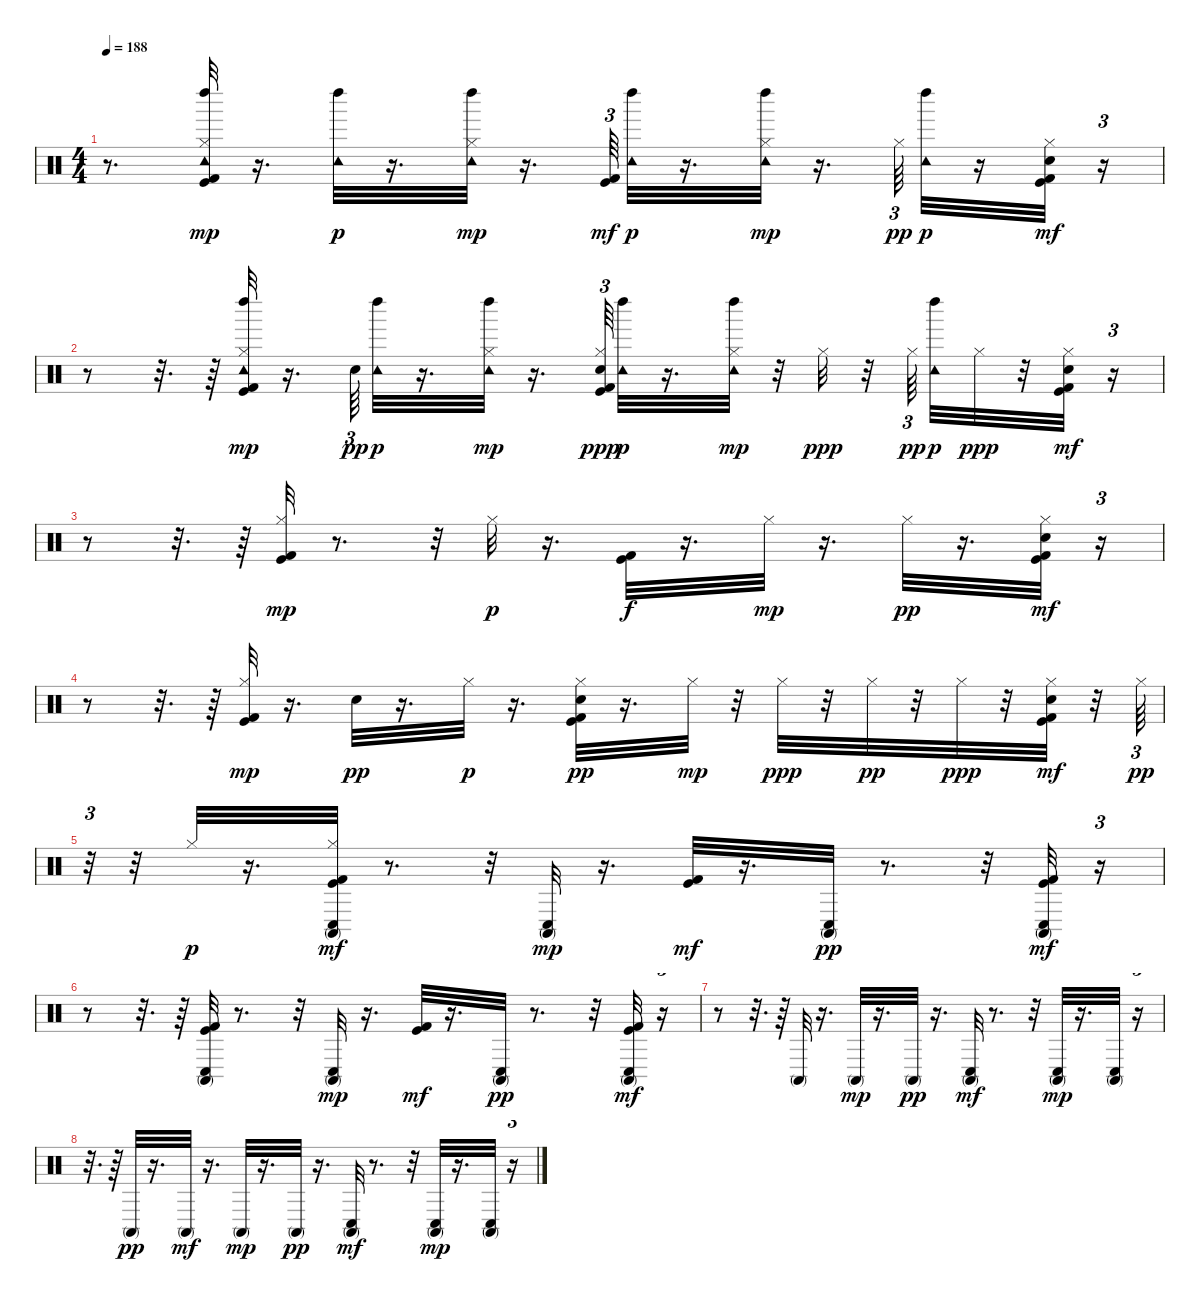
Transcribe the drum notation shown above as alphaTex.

\track "" {instrument percussion}
\staff {score}
\articulation defaults
\ts (4 4)
\tempo 188
\clef neutral
\ks c
r.8{d dy mf} ("Kick (hit) 2" "Hi-Hat (closed)" "Tambourine (hit)" "Left Maraca (hit)" "Kick (hit)").32{dy mp} r.16{d} ("Tambourine (hit)" "Left Maraca (hit)").32{dy p} r.16{d} ("Hi-Hat (closed)" "Tambourine (hit)" "Left Maraca (hit)").32{dy mp} r.16{d} ("Kick (hit) 2" "Kick (hit)").64{tu (3 2) dy mf} ("Tambourine (hit)" "Left Maraca (hit)").32{dy p} r.16{d} ("Hi-Hat (closed)" "Tambourine (hit)" "Left Maraca (hit)").32{dy mp} r.16{d} "Hi-Hat (closed)".64{tu (3 2) dy pp} ("Tambourine (hit)" "Left Maraca (hit)").32{dy p} r.16 ("Kick (hit) 2" "Hi-Hat (closed)" "Electric Snare (hit)" "Kick (hit)").32{dy mf} r.16{tu (3 2)} |
r.8 r.32{d} r.64 ("Kick (hit) 2" "Hi-Hat (closed)" "Tambourine (hit)" "Left Maraca (hit)" "Kick (hit)").32{dy mp} r.16{d} "Electric Snare (hit)".64{tu (3 2) dy pp} ("Tambourine (hit)" "Left Maraca (hit)").32{dy p} r.16{d} ("Hi-Hat (closed)" "Tambourine (hit)" "Left Maraca (hit)").32{dy mp} r.16{d} ("Kick (hit) 2" "Electric Snare (hit)" "Hi-Hat (closed)" "Kick (hit)").64{tu (3 2) dy ppp} ("Tambourine (hit)" "Left Maraca (hit)").32{dy p} r.16{d} ("Hi-Hat (closed)" "Tambourine (hit)" "Left Maraca (hit)").32{dy mp} r.32 "Hi-Hat (closed)".32{dy ppp} r.32 "Hi-Hat (closed)".64{tu (3 2) dy pp beam splitsecondary} ("Tambourine (hit)" "Left Maraca (hit)").32{dy p} "Hi-Hat (closed)".32{dy ppp} r.32 ("Kick (hit) 2" "Hi-Hat (closed)" "Electric Snare (hit)" "Kick (hit)").32{dy mf} r.16{tu (3 2)} |
r.8 r.32{d} r.64 ("Kick (hit) 2" "Hi-Hat (closed)" "Kick (hit)").32{dy mp} r.8{d} r.32 "Hi-Hat (closed)".32{dy p} r.16{d} ("Kick (hit) 2" "Kick (hit)").32{dy f} r.16{d} "Hi-Hat (closed)".32{dy mp} r.16{d} "Hi-Hat (closed)".32{dy pp} r.16{d} ("Kick (hit) 2" "Hi-Hat (closed)" "Electric Snare (hit)" "Kick (hit)").32{dy mf} r.16{tu (3 2)} |
r.8 r.32{d} r.64 ("Kick (hit) 2" "Hi-Hat (closed)" "Kick (hit)").32{dy mp} r.16{d} "Electric Snare (hit)".32{dy pp} r.16{d} "Hi-Hat (closed)".32{dy p} r.16{d} ("Kick (hit) 2" "Electric Snare (hit)" "Hi-Hat (closed)" "Kick (hit)").32{dy pp} r.16{d} "Hi-Hat (closed)".32{dy mp} r.32 "Hi-Hat (closed)".32{dy ppp} r.32 "Hi-Hat (closed)".32{dy pp} r.32 "Hi-Hat (closed)".32{dy ppp} r.32 ("Kick (hit) 2" "Electric Snare (hit)" "Hi-Hat (closed)" "Kick (hit)").32{dy mf} r.32 "Hi-Hat (closed)".64{tu (3 2) dy pp} |
r.32{tu (3 2)} r.32 "Hi-Hat (closed)".32{dy p} r.16{d} ("Kick (hit) 2" "Hi-Hat (closed)" "Conga high (mute)" "Conga low (hit)" "Kick (hit)").32{dy mf} r.8{d} r.32 ("Conga high (mute)" "Conga low (hit)").32{dy mp} r.16{d} ("Kick (hit) 2" "Kick (hit)").32{dy mf} r.16{d} ("Conga high (mute)" "Conga low (hit)").32{dy pp} r.8{d} r.32 ("Kick (hit) 2" "Conga high (mute)" "Conga low (hit)" "Kick (hit)").32{dy mf} r.16{tu (3 2)} |
r.8 r.32{d} r.64 ("Kick (hit) 2" "Conga high (mute)" "Conga low (hit)" "Kick (hit)").32 r.8{d} r.32 ("Conga high (mute)" "Conga low (hit)").32{dy mp} r.16{d} ("Kick (hit) 2" "Kick (hit)").32{dy mf} r.16{d} ("Conga high (mute)" "Conga low (hit)").32{dy pp} r.8{d} r.32 ("Kick (hit) 2" "Conga high (mute)" "Conga low (hit)" "Kick (hit)").32{dy mf} r.16{tu (3 2)} |
r.8 r.32{d} r.64 "Conga high (mute)".32 r.16{d} "Conga high (mute)".32{dy mp} r.16{d} "Conga high (mute)".32{dy pp} r.16{d} ("Conga high (mute)" "Conga low (hit)").32{dy mf} r.8{d} r.32 ("Conga high (mute)" "Conga low (hit)").32{dy mp} r.16{d} ("Conga high (mute)" "Conga low (hit)").32 r.16{tu (3 2)} |
r.32{d} r.64 "Conga high (mute)".32{dy pp} r.16{d} "Conga high (mute)".32{dy mf} r.16{d} "Conga high (mute)".32{dy mp} r.16{d} "Conga high (mute)".32{dy pp} r.16{d} ("Conga high (mute)" "Conga low (hit)").32{dy mf} r.8{d} r.32 ("Conga high (mute)" "Conga low (hit)").32{dy mp} r.16{d} ("Conga high (mute)" "Conga low (hit)").32 r.16{tu (3 2)}
